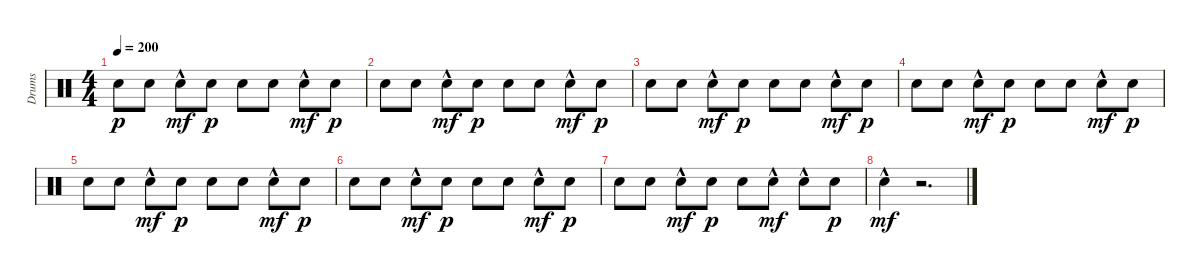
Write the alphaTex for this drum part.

\track ("Drums" "Drums") {instrument percussion}
\staff {score}
\articulation defaults
\ts (4 4)
\tempo 200
\clef neutral
\ks c "Electric Snare (hit)".8{dy p} "Electric Snare (hit)".8 "Electric Snare (hit)"{hac}.8{dy mf} "Electric Snare (hit)".8{dy p} "Electric Snare (hit)".8 "Electric Snare (hit)".8 "Electric Snare (hit)"{hac}.8{dy mf} "Electric Snare (hit)".8{dy p}
|
"Electric Snare (hit)".8 "Electric Snare (hit)".8 "Electric Snare (hit)"{hac}.8{dy mf} "Electric Snare (hit)".8{dy p} "Electric Snare (hit)".8 "Electric Snare (hit)".8 "Electric Snare (hit)"{hac}.8{dy mf} "Electric Snare (hit)".8{dy p} |
"Electric Snare (hit)".8 "Electric Snare (hit)".8 "Electric Snare (hit)"{hac}.8{dy mf} "Electric Snare (hit)".8{dy p} "Electric Snare (hit)".8 "Electric Snare (hit)".8 "Electric Snare (hit)"{hac}.8{dy mf} "Electric Snare (hit)".8{dy p} |
"Electric Snare (hit)".8 "Electric Snare (hit)".8 "Electric Snare (hit)"{hac}.8{dy mf} "Electric Snare (hit)".8{dy p} "Electric Snare (hit)".8 "Electric Snare (hit)".8 "Electric Snare (hit)"{hac}.8{dy mf} "Electric Snare (hit)".8{dy p} |
"Electric Snare (hit)".8 "Electric Snare (hit)".8 "Electric Snare (hit)"{hac}.8{dy mf} "Electric Snare (hit)".8{dy p} "Electric Snare (hit)".8 "Electric Snare (hit)".8 "Electric Snare (hit)"{hac}.8{dy mf} "Electric Snare (hit)".8{dy p} |
"Electric Snare (hit)".8 "Electric Snare (hit)".8 "Electric Snare (hit)"{hac}.8{dy mf} "Electric Snare (hit)".8{dy p} "Electric Snare (hit)".8 "Electric Snare (hit)".8 "Electric Snare (hit)"{hac}.8{dy mf} "Electric Snare (hit)".8{dy p} |
"Electric Snare (hit)".8 "Electric Snare (hit)".8 "Electric Snare (hit)"{hac}.8{dy mf} "Electric Snare (hit)".8{dy p} "Electric Snare (hit)".8 "Electric Snare (hit)"{hac}.8{dy mf} "Electric Snare (hit)"{hac}.8 "Electric Snare (hit)".8{dy p} |
"Electric Snare (hit)"{hac}.4{dy mf} r.2{d}
